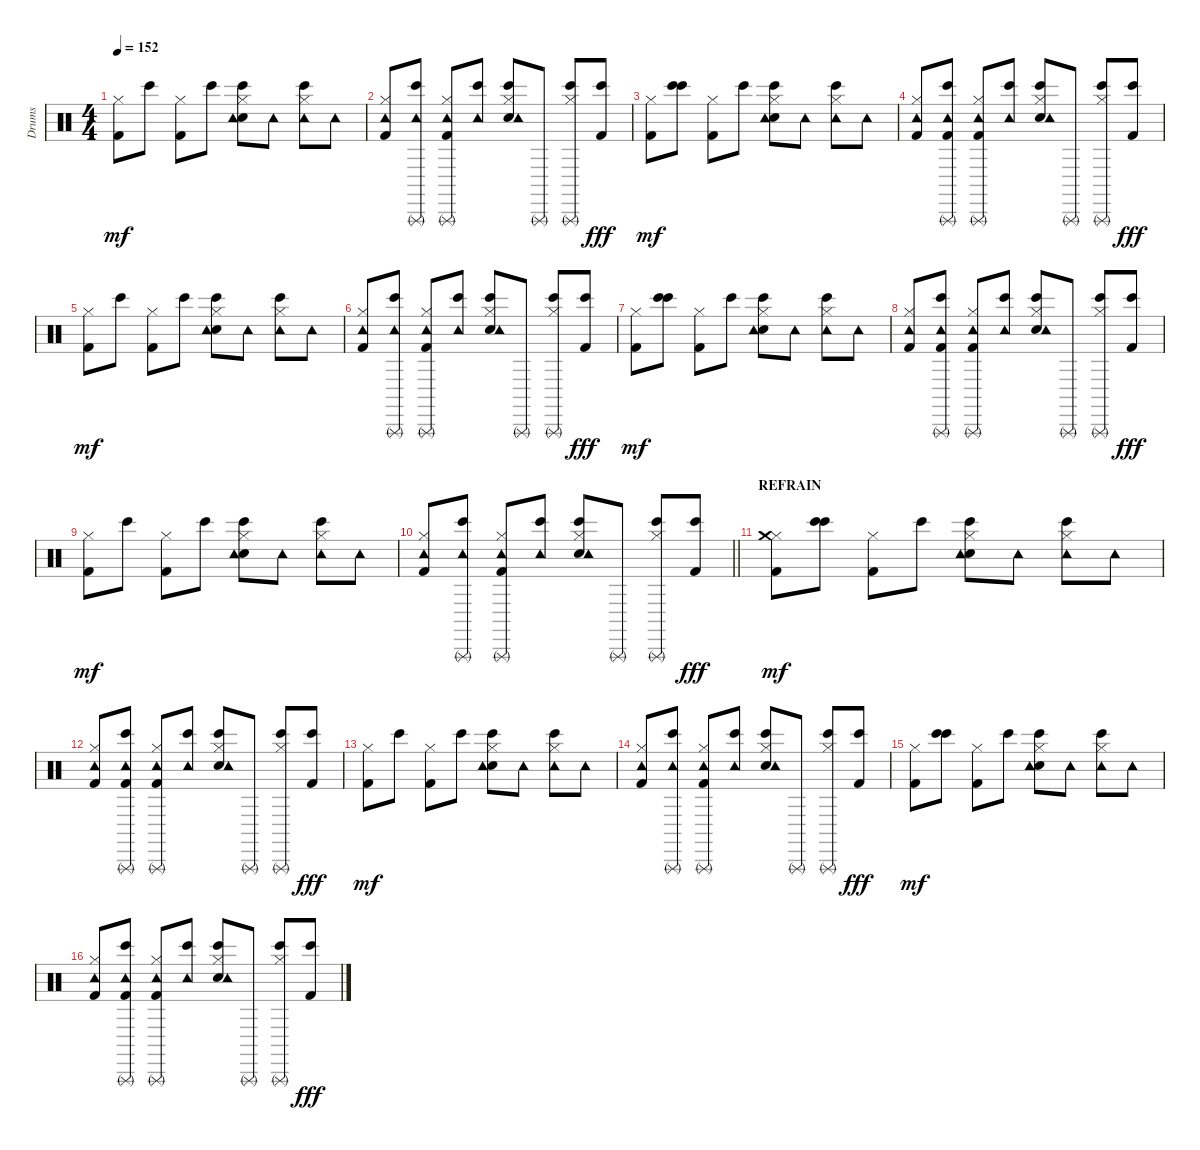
\track ("Drums" "Drums") {instrument percussion}
\staff {score}
\articulation defaults
\ts (4 4)
\tempo 152
\clef neutral
\ks c
("Kick (hit) 2" "Hi-Hat (closed)").8{dy mf} "Bongo High (hit)".8 ("Kick (hit) 2" "Hi-Hat (closed)").8 "Bongo High (hit)".8 ("Bongo High (hit)" "Electric Snare (hit)" "Hi-Hat (closed)" "Tambourine (hit)").8 "Tambourine (hit)".8 ("Tambourine (hit)" "Bongo High (hit)" "Hi-Hat (closed)").8 "Tambourine (hit)".8 |
("Tambourine (hit)" "Kick (hit) 2" "Hi-Hat (closed)").8 ("Tambourine (hit)" "Bongo High (hit)" "Triangle (rnute)").8 ("Kick (hit) 2" "Hi-Hat (closed)" "Triangle (rnute)" "Tambourine (hit)").8 ("Tambourine (hit)" "Bongo High (hit)").8 ("Bongo High (hit)" "Electric Snare (hit)" "Hi-Hat (closed)" "Tambourine (hit)").8 "Triangle (rnute)".8 ("Bongo High (hit)" "Hi-Hat (closed)" "Triangle (rnute)").8 ("Bongo High (hit)" "Kick (hit) 2").8{dy fff} |
("Kick (hit) 2" "Hi-Hat (closed)").8{dy mf} ("Bongo High (hit)" "Bongo High (hit)").8 ("Kick (hit) 2" "Hi-Hat (closed)").8 "Bongo High (hit)".8 ("Bongo High (hit)" "Electric Snare (hit)" "Hi-Hat (closed)" "Tambourine (hit)").8 "Tambourine (hit)".8 ("Tambourine (hit)" "Bongo High (hit)" "Hi-Hat (closed)").8 "Tambourine (hit)".8 |
("Tambourine (hit)" "Kick (hit) 2" "Hi-Hat (closed)").8 ("Tambourine (hit)" "Bongo High (hit)" "Kick (hit) 2" "Triangle (rnute)").8 ("Kick (hit) 2" "Hi-Hat (closed)" "Triangle (rnute)" "Tambourine (hit)").8 ("Tambourine (hit)" "Bongo High (hit)").8 ("Bongo High (hit)" "Electric Snare (hit)" "Hi-Hat (closed)" "Tambourine (hit)").8 "Triangle (rnute)".8 ("Bongo High (hit)" "Hi-Hat (closed)" "Triangle (rnute)").8 ("Bongo High (hit)" "Kick (hit) 2").8{dy fff} |
("Kick (hit) 2" "Hi-Hat (closed)").8{dy mf} "Bongo High (hit)".8 ("Kick (hit) 2" "Hi-Hat (closed)").8 "Bongo High (hit)".8 ("Bongo High (hit)" "Electric Snare (hit)" "Hi-Hat (closed)" "Tambourine (hit)").8 "Tambourine (hit)".8 ("Tambourine (hit)" "Bongo High (hit)" "Hi-Hat (closed)").8 "Tambourine (hit)".8 |
("Tambourine (hit)" "Kick (hit) 2" "Hi-Hat (closed)").8 ("Tambourine (hit)" "Bongo High (hit)" "Triangle (rnute)").8 ("Kick (hit) 2" "Hi-Hat (closed)" "Triangle (rnute)" "Tambourine (hit)").8 ("Tambourine (hit)" "Bongo High (hit)").8 ("Bongo High (hit)" "Electric Snare (hit)" "Hi-Hat (closed)" "Tambourine (hit)").8 "Triangle (rnute)".8 ("Bongo High (hit)" "Hi-Hat (closed)" "Triangle (rnute)").8 ("Bongo High (hit)" "Kick (hit) 2").8{dy fff} |
("Kick (hit) 2" "Hi-Hat (closed)").8{dy mf} ("Bongo High (hit)" "Bongo High (hit)").8 ("Kick (hit) 2" "Hi-Hat (closed)").8 "Bongo High (hit)".8 ("Bongo High (hit)" "Electric Snare (hit)" "Hi-Hat (closed)" "Tambourine (hit)").8 "Tambourine (hit)".8 ("Tambourine (hit)" "Bongo High (hit)" "Hi-Hat (closed)").8 "Tambourine (hit)".8 |
("Tambourine (hit)" "Kick (hit) 2" "Hi-Hat (closed)").8 ("Tambourine (hit)" "Bongo High (hit)" "Kick (hit) 2" "Triangle (rnute)").8 ("Kick (hit) 2" "Hi-Hat (closed)" "Triangle (rnute)" "Tambourine (hit)").8 ("Tambourine (hit)" "Bongo High (hit)").8 ("Bongo High (hit)" "Electric Snare (hit)" "Hi-Hat (closed)" "Tambourine (hit)").8 "Triangle (rnute)".8 ("Bongo High (hit)" "Hi-Hat (closed)" "Triangle (rnute)").8 ("Bongo High (hit)" "Kick (hit) 2").8{dy fff} |
("Kick (hit) 2" "Hi-Hat (closed)").8{dy mf} "Bongo High (hit)".8 ("Kick (hit) 2" "Hi-Hat (closed)").8 "Bongo High (hit)".8 ("Bongo High (hit)" "Electric Snare (hit)" "Hi-Hat (closed)" "Tambourine (hit)").8 "Tambourine (hit)".8 ("Tambourine (hit)" "Bongo High (hit)" "Hi-Hat (closed)").8 "Tambourine (hit)".8 |
\barLineRight lightlight
("Tambourine (hit)" "Kick (hit) 2" "Hi-Hat (closed)").8 ("Tambourine (hit)" "Bongo High (hit)" "Triangle (rnute)").8 ("Kick (hit) 2" "Hi-Hat (closed)" "Triangle (rnute)" "Tambourine (hit)").8 ("Tambourine (hit)" "Bongo High (hit)").8 ("Bongo High (hit)" "Electric Snare (hit)" "Hi-Hat (closed)" "Tambourine (hit)").8 "Triangle (rnute)".8 ("Bongo High (hit)" "Hi-Hat (closed)" "Triangle (rnute)").8 ("Bongo High (hit)" "Kick (hit) 2").8{dy fff} |
\section ("" "REFRAIN")
("Kick (hit) 2" "Hi-Hat (closed)" "Crash medium (hit)").8{dy mf} ("Bongo High (hit)" "Bongo High (hit)").8 ("Kick (hit) 2" "Hi-Hat (closed)").8 "Bongo High (hit)".8 ("Bongo High (hit)" "Electric Snare (hit)" "Hi-Hat (closed)" "Tambourine (hit)").8 "Tambourine (hit)".8 ("Tambourine (hit)" "Bongo High (hit)" "Hi-Hat (closed)").8 "Tambourine (hit)".8 |
("Tambourine (hit)" "Kick (hit) 2" "Hi-Hat (closed)").8 ("Tambourine (hit)" "Bongo High (hit)" "Kick (hit) 2" "Triangle (rnute)").8 ("Kick (hit) 2" "Hi-Hat (closed)" "Triangle (rnute)" "Tambourine (hit)").8 ("Tambourine (hit)" "Bongo High (hit)").8 ("Bongo High (hit)" "Electric Snare (hit)" "Hi-Hat (closed)" "Tambourine (hit)").8 "Triangle (rnute)".8 ("Bongo High (hit)" "Hi-Hat (closed)" "Triangle (rnute)").8 ("Bongo High (hit)" "Kick (hit) 2").8{dy fff} |
("Kick (hit) 2" "Hi-Hat (closed)").8{dy mf} "Bongo High (hit)".8 ("Kick (hit) 2" "Hi-Hat (closed)").8 "Bongo High (hit)".8 ("Bongo High (hit)" "Electric Snare (hit)" "Hi-Hat (closed)" "Tambourine (hit)").8 "Tambourine (hit)".8 ("Tambourine (hit)" "Bongo High (hit)" "Hi-Hat (closed)").8 "Tambourine (hit)".8 |
("Tambourine (hit)" "Kick (hit) 2" "Hi-Hat (closed)").8 ("Tambourine (hit)" "Bongo High (hit)" "Triangle (rnute)").8 ("Kick (hit) 2" "Hi-Hat (closed)" "Triangle (rnute)" "Tambourine (hit)").8 ("Tambourine (hit)" "Bongo High (hit)").8 ("Bongo High (hit)" "Electric Snare (hit)" "Hi-Hat (closed)" "Tambourine (hit)").8 "Triangle (rnute)".8 ("Bongo High (hit)" "Hi-Hat (closed)" "Triangle (rnute)").8 ("Bongo High (hit)" "Kick (hit) 2").8{dy fff} |
("Kick (hit) 2" "Hi-Hat (closed)").8{dy mf} ("Bongo High (hit)" "Bongo High (hit)").8 ("Kick (hit) 2" "Hi-Hat (closed)").8 "Bongo High (hit)".8 ("Bongo High (hit)" "Electric Snare (hit)" "Hi-Hat (closed)" "Tambourine (hit)").8 "Tambourine (hit)".8 ("Tambourine (hit)" "Bongo High (hit)" "Hi-Hat (closed)").8 "Tambourine (hit)".8 |
("Tambourine (hit)" "Kick (hit) 2" "Hi-Hat (closed)").8 ("Tambourine (hit)" "Bongo High (hit)" "Kick (hit) 2" "Triangle (rnute)").8 ("Kick (hit) 2" "Hi-Hat (closed)" "Triangle (rnute)" "Tambourine (hit)").8 ("Tambourine (hit)" "Bongo High (hit)").8 ("Bongo High (hit)" "Electric Snare (hit)" "Hi-Hat (closed)" "Tambourine (hit)").8 "Triangle (rnute)".8 ("Bongo High (hit)" "Hi-Hat (closed)" "Triangle (rnute)").8 ("Bongo High (hit)" "Kick (hit) 2").8{dy fff}
